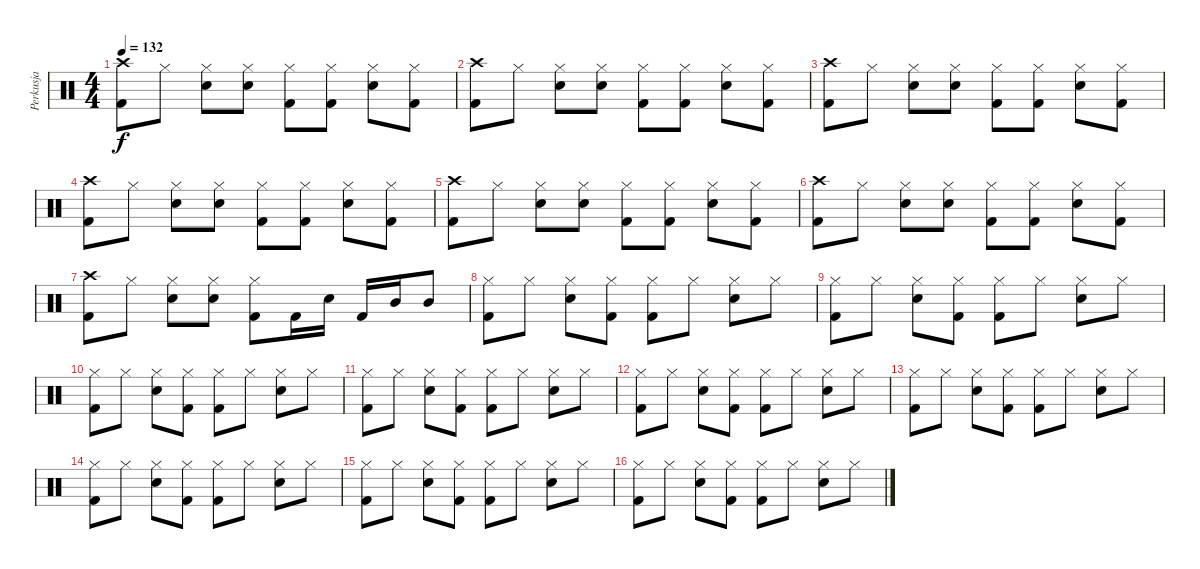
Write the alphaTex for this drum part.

\track ("Perkusja" "Perkusja") {instrument percussion}
\staff {score}
\articulation defaults
\ts (4 4)
\tempo 132
\clef neutral
\ks c
("Kick (hit) 2" "Crash high (hit)").8{dy f} "Hi-Hat (closed)".8 ("Snare (hit) 2" "Hi-Hat (closed)").8 ("Snare (hit) 2" "Hi-Hat (closed)").8 ("Kick (hit) 2" "Hi-Hat (closed)").8 ("Kick (hit) 2" "Hi-Hat (closed)").8 ("Snare (hit) 2" "Hi-Hat (closed)").8 ("Kick (hit) 2" "Hi-Hat (closed)").8 |
("Kick (hit) 2" "Crash high (hit)").8 "Hi-Hat (closed)".8 ("Snare (hit) 2" "Hi-Hat (closed)").8 ("Snare (hit) 2" "Hi-Hat (closed)").8 ("Kick (hit) 2" "Hi-Hat (closed)").8 ("Kick (hit) 2" "Hi-Hat (closed)").8 ("Snare (hit) 2" "Hi-Hat (closed)").8 ("Kick (hit) 2" "Hi-Hat (closed)").8 |
("Kick (hit) 2" "Crash high (hit)").8 "Hi-Hat (closed)".8 ("Snare (hit) 2" "Hi-Hat (closed)").8 ("Snare (hit) 2" "Hi-Hat (closed)").8 ("Kick (hit) 2" "Hi-Hat (closed)").8 ("Kick (hit) 2" "Hi-Hat (closed)").8 ("Snare (hit) 2" "Hi-Hat (closed)").8 ("Kick (hit) 2" "Hi-Hat (closed)").8 |
("Kick (hit) 2" "Crash high (hit)").8 "Hi-Hat (closed)".8 ("Snare (hit) 2" "Hi-Hat (closed)").8 ("Snare (hit) 2" "Hi-Hat (closed)").8 ("Kick (hit) 2" "Hi-Hat (closed)").8 ("Kick (hit) 2" "Hi-Hat (closed)").8 ("Snare (hit) 2" "Hi-Hat (closed)").8 ("Kick (hit) 2" "Hi-Hat (closed)").8 |
("Kick (hit) 2" "Crash high (hit)").8 "Hi-Hat (closed)".8 ("Snare (hit) 2" "Hi-Hat (closed)").8 ("Snare (hit) 2" "Hi-Hat (closed)").8 ("Kick (hit) 2" "Hi-Hat (closed)").8 ("Kick (hit) 2" "Hi-Hat (closed)").8 ("Snare (hit) 2" "Hi-Hat (closed)").8 ("Kick (hit) 2" "Hi-Hat (closed)").8 |
("Kick (hit) 2" "Crash high (hit)").8 "Hi-Hat (closed)".8 ("Snare (hit) 2" "Hi-Hat (closed)").8 ("Snare (hit) 2" "Hi-Hat (closed)").8 ("Kick (hit) 2" "Hi-Hat (closed)").8 ("Kick (hit) 2" "Hi-Hat (closed)").8 ("Snare (hit) 2" "Hi-Hat (closed)").8 ("Kick (hit) 2" "Hi-Hat (closed)").8 |
("Kick (hit) 2" "Crash high (hit)").8 "Hi-Hat (closed)".8 ("Snare (hit) 2" "Hi-Hat (closed)").8 ("Snare (hit) 2" "Hi-Hat (closed)").8 ("Kick (hit) 2" "Hi-Hat (closed)").8 "Kick (hit) 2".16 "Snare (hit) 2".16 "Kick (hit) 2".16 "Mid Tom (hit)".16 "Mid Tom (hit)".8 |
("Kick (hit) 2" "Hi-Hat (closed)").8 "Hi-Hat (closed)".8 ("Snare (hit) 2" "Hi-Hat (closed)").8 ("Kick (hit) 2" "Hi-Hat (closed)").8 ("Kick (hit) 2" "Hi-Hat (closed)").8 "Hi-Hat (closed)".8 ("Snare (hit) 2" "Hi-Hat (closed)").8 "Hi-Hat (closed)".8 |
("Kick (hit) 2" "Hi-Hat (closed)").8 "Hi-Hat (closed)".8 ("Snare (hit) 2" "Hi-Hat (closed)").8 ("Kick (hit) 2" "Hi-Hat (closed)").8 ("Kick (hit) 2" "Hi-Hat (closed)").8 "Hi-Hat (closed)".8 ("Snare (hit) 2" "Hi-Hat (closed)").8 "Hi-Hat (closed)".8 |
("Kick (hit) 2" "Hi-Hat (closed)").8 "Hi-Hat (closed)".8 ("Snare (hit) 2" "Hi-Hat (closed)").8 ("Kick (hit) 2" "Hi-Hat (closed)").8 ("Kick (hit) 2" "Hi-Hat (closed)").8 "Hi-Hat (closed)".8 ("Snare (hit) 2" "Hi-Hat (closed)").8 "Hi-Hat (closed)".8 |
("Kick (hit) 2" "Hi-Hat (closed)").8 "Hi-Hat (closed)".8 ("Snare (hit) 2" "Hi-Hat (closed)").8 ("Kick (hit) 2" "Hi-Hat (closed)").8 ("Kick (hit) 2" "Hi-Hat (closed)").8 "Hi-Hat (closed)".8 ("Snare (hit) 2" "Hi-Hat (closed)").8 "Hi-Hat (closed)".8 |
("Kick (hit) 2" "Hi-Hat (closed)").8 "Hi-Hat (closed)".8 ("Snare (hit) 2" "Hi-Hat (closed)").8 ("Kick (hit) 2" "Hi-Hat (closed)").8 ("Kick (hit) 2" "Hi-Hat (closed)").8 "Hi-Hat (closed)".8 ("Snare (hit) 2" "Hi-Hat (closed)").8 "Hi-Hat (closed)".8 |
("Kick (hit) 2" "Hi-Hat (closed)").8 "Hi-Hat (closed)".8 ("Snare (hit) 2" "Hi-Hat (closed)").8 ("Kick (hit) 2" "Hi-Hat (closed)").8 ("Kick (hit) 2" "Hi-Hat (closed)").8 "Hi-Hat (closed)".8 ("Snare (hit) 2" "Hi-Hat (closed)").8 "Hi-Hat (closed)".8 |
("Kick (hit) 2" "Hi-Hat (closed)").8 "Hi-Hat (closed)".8 ("Snare (hit) 2" "Hi-Hat (closed)").8 ("Kick (hit) 2" "Hi-Hat (closed)").8 ("Kick (hit) 2" "Hi-Hat (closed)").8 "Hi-Hat (closed)".8 ("Snare (hit) 2" "Hi-Hat (closed)").8 "Hi-Hat (closed)".8 |
("Kick (hit) 2" "Hi-Hat (closed)").8 "Hi-Hat (closed)".8 ("Snare (hit) 2" "Hi-Hat (closed)").8 ("Kick (hit) 2" "Hi-Hat (closed)").8 ("Kick (hit) 2" "Hi-Hat (closed)").8 "Hi-Hat (closed)".8 ("Snare (hit) 2" "Hi-Hat (closed)").8 "Hi-Hat (closed)".8 |
("Kick (hit) 2" "Hi-Hat (closed)").8 "Hi-Hat (closed)".8 ("Snare (hit) 2" "Hi-Hat (closed)").8 ("Kick (hit) 2" "Hi-Hat (closed)").8 ("Kick (hit) 2" "Hi-Hat (closed)").8 "Hi-Hat (closed)".8 ("Snare (hit) 2" "Hi-Hat (closed)").8 "Hi-Hat (closed)".8
